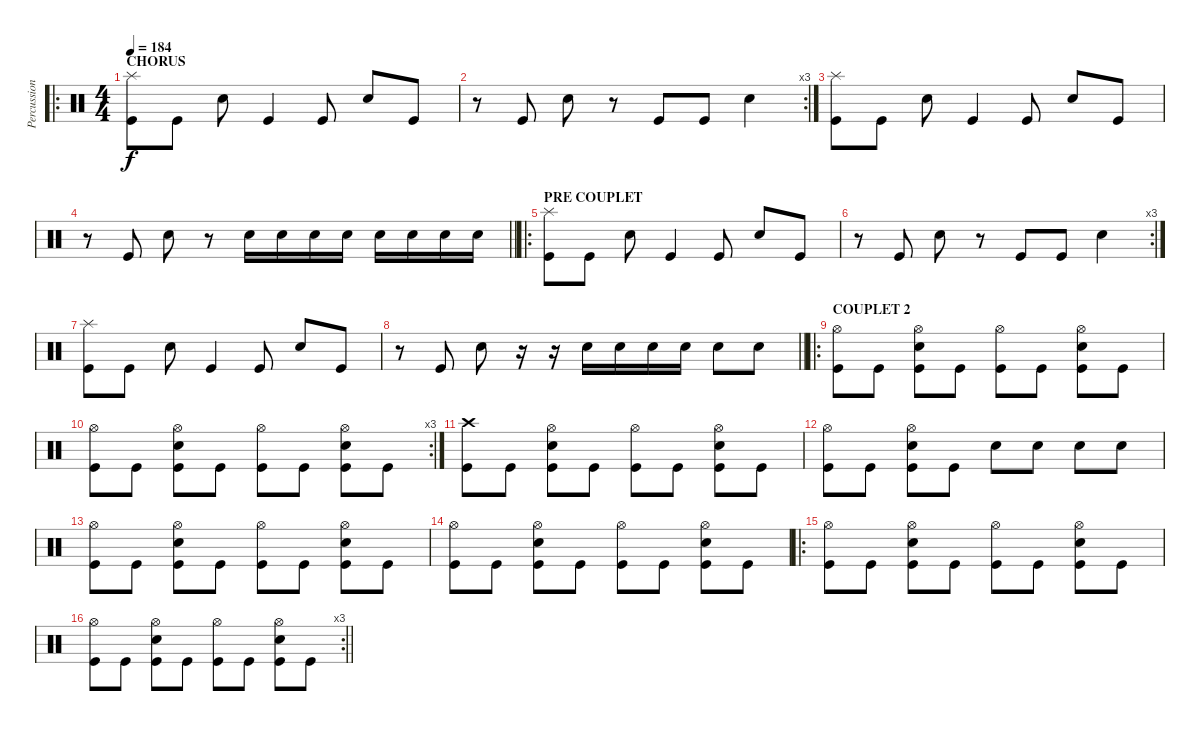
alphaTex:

\track ("Percussions" "Percussion") {instrument percussion}
\staff {score}
\articulation defaults
\ro
\ts (4 4)
\section ("" "CHORUS")
\tempo 184
\clef neutral
\ks c
("Splash (hit)" "Kick (hit)").8{dy f} "Kick (hit)".8 "Electric Snare (hit)".8 "Kick (hit)".4 "Kick (hit)".8 "Electric Snare (hit)".8 "Kick (hit)".8 |
\rc 3
r.8 "Kick (hit)".8 "Electric Snare (hit)".8 r.8 "Kick (hit)".8 "Kick (hit)".8 "Electric Snare (hit)".4 |
("Splash (hit)" "Kick (hit)").8 "Kick (hit)".8 "Electric Snare (hit)".8 "Kick (hit)".4 "Kick (hit)".8 "Electric Snare (hit)".8 "Kick (hit)".8 |
\barLineRight lightlight
r.8 "Kick (hit)".8 "Electric Snare (hit)".8 r.8 "Electric Snare (hit)".16 "Electric Snare (hit)".16 "Electric Snare (hit)".16 "Electric Snare (hit)".16 "Electric Snare (hit)".16 "Electric Snare (hit)".16 "Electric Snare (hit)".16 "Electric Snare (hit)".16 |
\ro
\section ("" "PRE COUPLET")
("Splash (hit)" "Kick (hit)").8 "Kick (hit)".8 "Electric Snare (hit)".8 "Kick (hit)".4 "Kick (hit)".8 "Electric Snare (hit)".8 "Kick (hit)".8 |
\rc 3
r.8 "Kick (hit)".8 "Electric Snare (hit)".8 r.8 "Kick (hit)".8 "Kick (hit)".8 "Electric Snare (hit)".4 |
("Splash (hit)" "Kick (hit)").8 "Kick (hit)".8 "Electric Snare (hit)".8 "Kick (hit)".4 "Kick (hit)".8 "Electric Snare (hit)".8 "Kick (hit)".8 |
\barLineRight lightlight
r.8 "Kick (hit)".8 "Electric Snare (hit)".8 r.16 r.16 "Electric Snare (hit)".16 "Electric Snare (hit)".16 "Electric Snare (hit)".16 "Electric Snare (hit)".16 "Electric Snare (hit)".8 "Electric Snare (hit)".8 |
\ro
\section ("" "COUPLET 2")
("Hi-Hat (open)" "Kick (hit)").8 "Kick (hit)".8 ("Hi-Hat (open)" "Electric Snare (hit)" "Kick (hit)").8 "Kick (hit)".8 ("Hi-Hat (open)" "Kick (hit)").8 "Kick (hit)".8 ("Hi-Hat (open)" "Electric Snare (hit)" "Kick (hit)").8 "Kick (hit)".8 |
\rc 3
("Hi-Hat (open)" "Kick (hit)").8 "Kick (hit)".8 ("Hi-Hat (open)" "Electric Snare (hit)" "Kick (hit)").8 "Kick (hit)".8 ("Hi-Hat (open)" "Kick (hit)").8 "Kick (hit)".8 ("Hi-Hat (open)" "Electric Snare (hit)" "Kick (hit)").8 "Kick (hit)".8 |
("Crash high (hit)" "Kick (hit)").8 "Kick (hit)".8 ("Hi-Hat (open)" "Electric Snare (hit)" "Kick (hit)").8 "Kick (hit)".8 ("Hi-Hat (open)" "Kick (hit)").8 "Kick (hit)".8 ("Hi-Hat (open)" "Electric Snare (hit)" "Kick (hit)").8 "Kick (hit)".8 |
("Hi-Hat (open)" "Kick (hit)").8 "Kick (hit)".8 ("Hi-Hat (open)" "Electric Snare (hit)" "Kick (hit)").8 "Kick (hit)".8 "Electric Snare (hit)".8 "Electric Snare (hit)".8 "Electric Snare (hit)".8 "Electric Snare (hit)".8 |
("Hi-Hat (open)" "Kick (hit)").8 "Kick (hit)".8 ("Hi-Hat (open)" "Electric Snare (hit)" "Kick (hit)").8 "Kick (hit)".8 ("Hi-Hat (open)" "Kick (hit)").8 "Kick (hit)".8 ("Hi-Hat (open)" "Electric Snare (hit)" "Kick (hit)").8 "Kick (hit)".8 |
("Hi-Hat (open)" "Kick (hit)").8 "Kick (hit)".8 ("Hi-Hat (open)" "Electric Snare (hit)" "Kick (hit)").8 "Kick (hit)".8 ("Hi-Hat (open)" "Kick (hit)").8 "Kick (hit)".8 ("Hi-Hat (open)" "Electric Snare (hit)" "Kick (hit)").8 "Kick (hit)".8 |
\ro
("Hi-Hat (open)" "Kick (hit)").8 "Kick (hit)".8 ("Hi-Hat (open)" "Electric Snare (hit)" "Kick (hit)").8 "Kick (hit)".8 ("Hi-Hat (open)" "Kick (hit)").8 "Kick (hit)".8 ("Hi-Hat (open)" "Electric Snare (hit)" "Kick (hit)").8 "Kick (hit)".8 |
\rc 3
\barLineRight lightlight
("Hi-Hat (open)" "Kick (hit)").8 "Kick (hit)".8 ("Hi-Hat (open)" "Electric Snare (hit)" "Kick (hit)").8 "Kick (hit)".8 ("Hi-Hat (open)" "Kick (hit)").8 "Kick (hit)".8 ("Hi-Hat (open)" "Electric Snare (hit)" "Kick (hit)").8 "Kick (hit)".8
